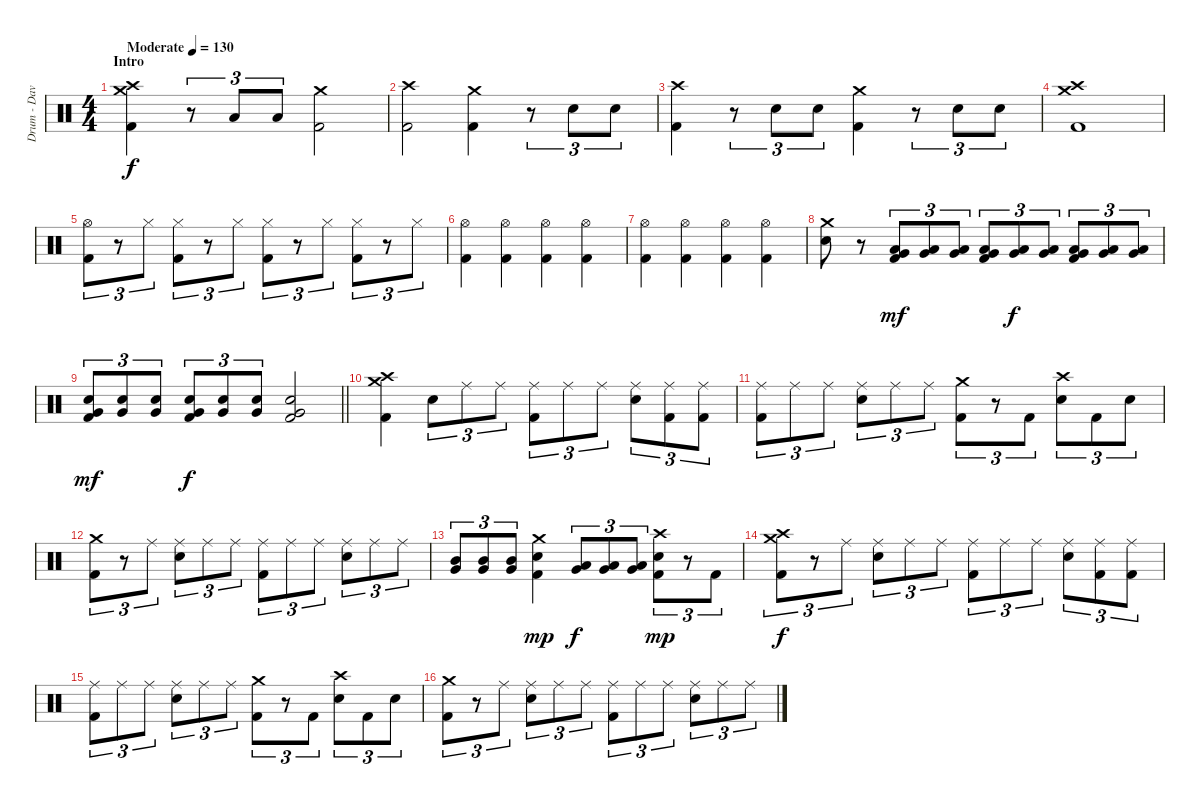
\track ("Drum - Dave Mackintosh" "Drum - Dav") {instrument percussion}
\staff {score}
\articulation defaults
\ts (4 4)
\section ("" "Intro")
\tempo (130 "Moderate")
\clef neutral
\ks c
("Crash medium (hit)" "Crash high (hit)" "Kick (hit) 2").4{dy f} r.8{tu (3 2)} "Low Tom (hit)".8{tu (3 2)} "Low Tom (hit)".8{tu (3 2)} ("Crash medium (hit)" "Kick (hit) 2").2 |
("Crash high (hit)" "Kick (hit) 2").2 ("Crash medium (hit)" "Kick (hit) 2").4 r.8{tu (3 2)} "Electric Snare (hit)".8{tu (3 2)} "Electric Snare (hit)".8{tu (3 2)} |
("Crash high (hit)" "Kick (hit) 2").4 r.8{tu (3 2)} "Electric Snare (hit)".8{tu (3 2)} "Electric Snare (hit)".8{tu (3 2)} ("Crash medium (hit)" "Kick (hit) 2").4 r.8{tu (3 2)} "Electric Snare (hit)".8{tu (3 2)} "Electric Snare (hit)".8{tu (3 2)} |
("Crash medium (hit)" "Crash high (hit)" "Kick (hit) 2").1 |
("Hi-Hat (open)" "Kick (hit) 2").8{tu (3 2)} r.8{tu (3 2)} "Hi-Hat (closed)".8{tu (3 2)} ("Hi-Hat (closed)" "Kick (hit) 2").8{tu (3 2)} r.8{tu (3 2)} "Hi-Hat (closed)".8{tu (3 2)} ("Hi-Hat (closed)" "Kick (hit) 2").8{tu (3 2)} r.8{tu (3 2)} "Hi-Hat (closed)".8{tu (3 2)} ("Hi-Hat (closed)" "Kick (hit) 2").8{tu (3 2)} r.8{tu (3 2)} "Hi-Hat (closed)".8{tu (3 2)} |
("Hi-Hat (open)" "Kick (hit) 2").4 ("Hi-Hat (open)" "Kick (hit) 2").4 ("Hi-Hat (open)" "Kick (hit) 2").4 ("Hi-Hat (open)" "Kick (hit) 2").4 |
("Hi-Hat (open)" "Kick (hit) 2").4 ("Hi-Hat (open)" "Kick (hit) 2").4 ("Hi-Hat (open)" "Kick (hit) 2").4 ("Hi-Hat (open)" "Kick (hit) 2").4 |
("Crash medium (hit)" "Electric Snare (hit)").8 r.8 ("Very Low Tom (hit)" "Low Floor Tom (hit)" "Kick (hit) 2").8{tu (3 2) dy mf} ("Very Low Tom (hit)" "Low Floor Tom (hit)").8{tu (3 2)} ("Very Low Tom (hit)" "Low Floor Tom (hit)").8{tu (3 2)} ("Very Low Tom (hit)" "Low Floor Tom (hit)" "Kick (hit) 2").8{tu (3 2)} ("Very Low Tom (hit)" "Low Floor Tom (hit)").8{tu (3 2) dy f} ("Very Low Tom (hit)" "Low Floor Tom (hit)").8{tu (3 2)} ("Very Low Tom (hit)" "Low Floor Tom (hit)" "Kick (hit) 2").8{tu (3 2)} ("Very Low Tom (hit)" "Low Floor Tom (hit)").8{tu (3 2)} ("Very Low Tom (hit)" "Low Floor Tom (hit)").8{tu (3 2)} |
\barLineRight lightlight
("Electric Snare (hit)" "Very Low Tom (hit)" "Kick (hit) 2").8{tu (3 2) dy mf} ("Electric Snare (hit)" "Very Low Tom (hit)").8{tu (3 2)} ("Electric Snare (hit)" "Very Low Tom (hit)").8{tu (3 2)} ("Electric Snare (hit)" "Very Low Tom (hit)" "Kick (hit) 2").8{tu (3 2) dy f} ("Electric Snare (hit)" "Very Low Tom (hit)").8{tu (3 2)} ("Electric Snare (hit)" "Very Low Tom (hit)").8{tu (3 2)} ("Electric Snare (hit)" "Very Low Tom (hit)" "Kick (hit) 2").2 |
\section ("" "")
("Crash medium (hit)" "Crash high (hit)" "Kick (hit) 2").4 "Electric Snare (hit)".8{tu (3 2)} "Ride (middle)".8{tu (3 2)} "Ride (middle)".8{tu (3 2)} ("Ride (middle)" "Kick (hit) 2").8{tu (3 2)} "Ride (middle)".8{tu (3 2)} "Ride (middle)".8{tu (3 2)} ("Ride (middle)" "Electric Snare (hit)").8{tu (3 2)} ("Ride (middle)" "Kick (hit) 2").8{tu (3 2)} ("Ride (middle)" "Kick (hit) 2").8{tu (3 2)} |
("Ride (middle)" "Kick (hit) 2").8{tu (3 2)} "Ride (middle)".8{tu (3 2)} "Ride (middle)".8{tu (3 2)} ("Ride (middle)" "Electric Snare (hit)").8{tu (3 2)} "Ride (middle)".8{tu (3 2)} "Ride (middle)".8{tu (3 2)} ("Crash medium (hit)" "Kick (hit) 2").8{tu (3 2)} r.8{tu (3 2)} "Kick (hit) 2".8{tu (3 2)} ("Crash high (hit)" "Electric Snare (hit)").8{tu (3 2)} "Kick (hit) 2".8{tu (3 2)} "Electric Snare (hit)".8{tu (3 2)} |
("Crash medium (hit)" "Kick (hit) 2").8{tu (3 2)} r.8{tu (3 2)} "Ride (middle)".8{tu (3 2)} ("Ride (middle)" "Electric Snare (hit)").8{tu (3 2)} "Ride (middle)".8{tu (3 2)} "Ride (middle)".8{tu (3 2)} ("Ride (middle)" "Kick (hit) 2").8{tu (3 2)} "Ride (middle)".8{tu (3 2)} "Ride (middle)".8{tu (3 2)} ("Ride (middle)" "Electric Snare (hit)").8{tu (3 2)} "Ride (middle)".8{tu (3 2)} "Ride (middle)".8{tu (3 2)} |
("Mid Tom (hit)" "Very Low Tom (hit)").8{tu (3 2)} ("Mid Tom (hit)" "Very Low Tom (hit)").8{tu (3 2)} ("Mid Tom (hit)" "Very Low Tom (hit)").8{tu (3 2)} ("Crash medium (hit)" "Electric Snare (hit)" "Kick (hit) 2").4{dy mp} ("Low Tom (hit)" "Very Low Tom (hit)").8{tu (3 2) dy f} ("Low Tom (hit)" "Very Low Tom (hit)").8{tu (3 2)} ("Low Tom (hit)" "Very Low Tom (hit)").8{tu (3 2)} ("Crash high (hit)" "Electric Snare (hit)" "Kick (hit) 2").8{tu (3 2) dy mp} r.8{tu (3 2)} "Kick (hit) 2".8{tu (3 2)} |
("Crash high (hit)" "Crash medium (hit)" "Kick (hit) 2").8{tu (3 2) dy f} r.8{tu (3 2)} "Ride (middle)".8{tu (3 2)} ("Ride (middle)" "Electric Snare (hit)").8{tu (3 2)} "Ride (middle)".8{tu (3 2)} "Ride (middle)".8{tu (3 2)} ("Ride (middle)" "Kick (hit) 2").8{tu (3 2)} "Ride (middle)".8{tu (3 2)} "Ride (middle)".8{tu (3 2)} ("Ride (middle)" "Electric Snare (hit)").8{tu (3 2)} ("Ride (middle)" "Kick (hit) 2").8{tu (3 2)} ("Ride (middle)" "Kick (hit) 2").8{tu (3 2)} |
("Ride (middle)" "Kick (hit) 2").8{tu (3 2)} "Ride (middle)".8{tu (3 2)} "Ride (middle)".8{tu (3 2)} ("Ride (middle)" "Electric Snare (hit)").8{tu (3 2)} "Ride (middle)".8{tu (3 2)} "Ride (middle)".8{tu (3 2)} ("Crash medium (hit)" "Kick (hit) 2").8{tu (3 2)} r.8{tu (3 2)} "Kick (hit) 2".8{tu (3 2)} ("Crash high (hit)" "Electric Snare (hit)").8{tu (3 2)} "Kick (hit) 2".8{tu (3 2)} "Electric Snare (hit)".8{tu (3 2)} |
("Crash medium (hit)" "Kick (hit) 2").8{tu (3 2)} r.8{tu (3 2)} "Ride (middle)".8{tu (3 2)} ("Ride (middle)" "Electric Snare (hit)").8{tu (3 2)} "Ride (middle)".8{tu (3 2)} "Ride (middle)".8{tu (3 2)} ("Ride (middle)" "Kick (hit) 2").8{tu (3 2)} "Ride (middle)".8{tu (3 2)} "Ride (middle)".8{tu (3 2)} ("Ride (middle)" "Electric Snare (hit)").8{tu (3 2)} "Ride (middle)".8{tu (3 2)} "Ride (middle)".8{tu (3 2)}
